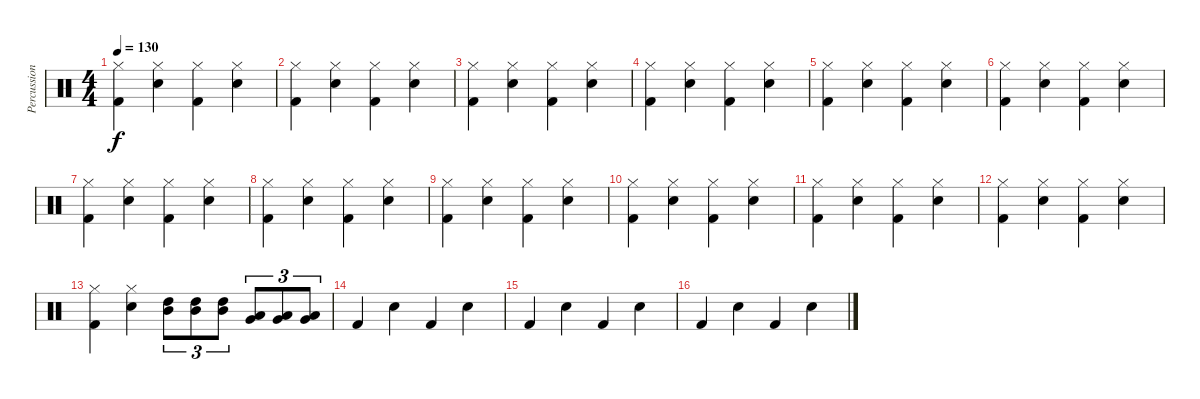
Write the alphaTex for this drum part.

\track ("Percussion" "Percussion") {instrument percussion bank 177}
\staff {score}
\articulation defaults
\ts (4 4)
\tempo 130
\clef neutral
\ks c
("Hi-Hat (closed)" "Kick (hit) 2").4{dy f} ("Hi-Hat (closed)" "Snare (hit) 2").4 ("Hi-Hat (closed)" "Kick (hit) 2").4 ("Hi-Hat (closed)" "Snare (hit) 2").4 |
("Hi-Hat (closed)" "Kick (hit) 2").4 ("Hi-Hat (closed)" "Snare (hit) 2").4 ("Hi-Hat (closed)" "Kick (hit) 2").4 ("Hi-Hat (closed)" "Snare (hit) 2").4 |
("Hi-Hat (closed)" "Kick (hit) 2").4 ("Hi-Hat (closed)" "Snare (hit) 2").4 ("Hi-Hat (closed)" "Kick (hit) 2").4 ("Hi-Hat (closed)" "Snare (hit) 2").4 |
("Hi-Hat (closed)" "Kick (hit) 2").4 ("Hi-Hat (closed)" "Snare (hit) 2").4 ("Hi-Hat (closed)" "Kick (hit) 2").4 ("Hi-Hat (closed)" "Snare (hit) 2").4 |
("Hi-Hat (closed)" "Kick (hit) 2").4 ("Hi-Hat (closed)" "Snare (hit) 2").4 ("Hi-Hat (closed)" "Kick (hit) 2").4 ("Hi-Hat (closed)" "Snare (hit) 2").4 |
("Hi-Hat (closed)" "Kick (hit) 2").4 ("Hi-Hat (closed)" "Snare (hit) 2").4 ("Hi-Hat (closed)" "Kick (hit) 2").4 ("Hi-Hat (closed)" "Snare (hit) 2").4 |
("Hi-Hat (closed)" "Kick (hit) 2").4 ("Hi-Hat (closed)" "Snare (hit) 2").4 ("Hi-Hat (closed)" "Kick (hit) 2").4 ("Hi-Hat (closed)" "Snare (hit) 2").4 |
("Hi-Hat (closed)" "Kick (hit) 2").4 ("Hi-Hat (closed)" "Snare (hit) 2").4 ("Hi-Hat (closed)" "Kick (hit) 2").4 ("Hi-Hat (closed)" "Snare (hit) 2").4 |
("Hi-Hat (closed)" "Kick (hit) 2").4 ("Hi-Hat (closed)" "Snare (hit) 2").4 ("Hi-Hat (closed)" "Kick (hit) 2").4 ("Hi-Hat (closed)" "Snare (hit) 2").4 |
("Hi-Hat (closed)" "Kick (hit) 2").4 ("Hi-Hat (closed)" "Snare (hit) 2").4 ("Hi-Hat (closed)" "Kick (hit) 2").4 ("Hi-Hat (closed)" "Snare (hit) 2").4 |
("Hi-Hat (closed)" "Kick (hit) 2").4 ("Hi-Hat (closed)" "Snare (hit) 2").4 ("Hi-Hat (closed)" "Kick (hit) 2").4 ("Hi-Hat (closed)" "Snare (hit) 2").4 |
("Hi-Hat (closed)" "Kick (hit) 2").4 ("Hi-Hat (closed)" "Snare (hit) 2").4 ("Hi-Hat (closed)" "Kick (hit) 2").4 ("Hi-Hat (closed)" "Snare (hit) 2").4 |
("Hi-Hat (closed)" "Kick (hit) 2").4 ("Hi-Hat (closed)" "Snare (hit) 2").4 ("High Tom (hit)" "Mid Tom (hit)").8{tu (3 2)} ("High Tom (hit)" "Mid Tom (hit)").8{tu (3 2)} ("High Tom (hit)" "Mid Tom (hit)").8{tu (3 2)} ("Low Tom (hit)" "Very Low Tom (hit)").8{tu (3 2)} ("Low Tom (hit)" "Very Low Tom (hit)").8{tu (3 2)} ("Low Tom (hit)" "Very Low Tom (hit)").8{tu (3 2)} |
"Kick (hit) 2".4 "Snare (hit) 2".4 "Kick (hit) 2".4 "Snare (hit) 2".4 |
"Kick (hit) 2".4 "Snare (hit) 2".4 "Kick (hit) 2".4 "Snare (hit) 2".4 |
"Kick (hit) 2".4 "Snare (hit) 2".4 "Kick (hit) 2".4 "Snare (hit) 2".4
